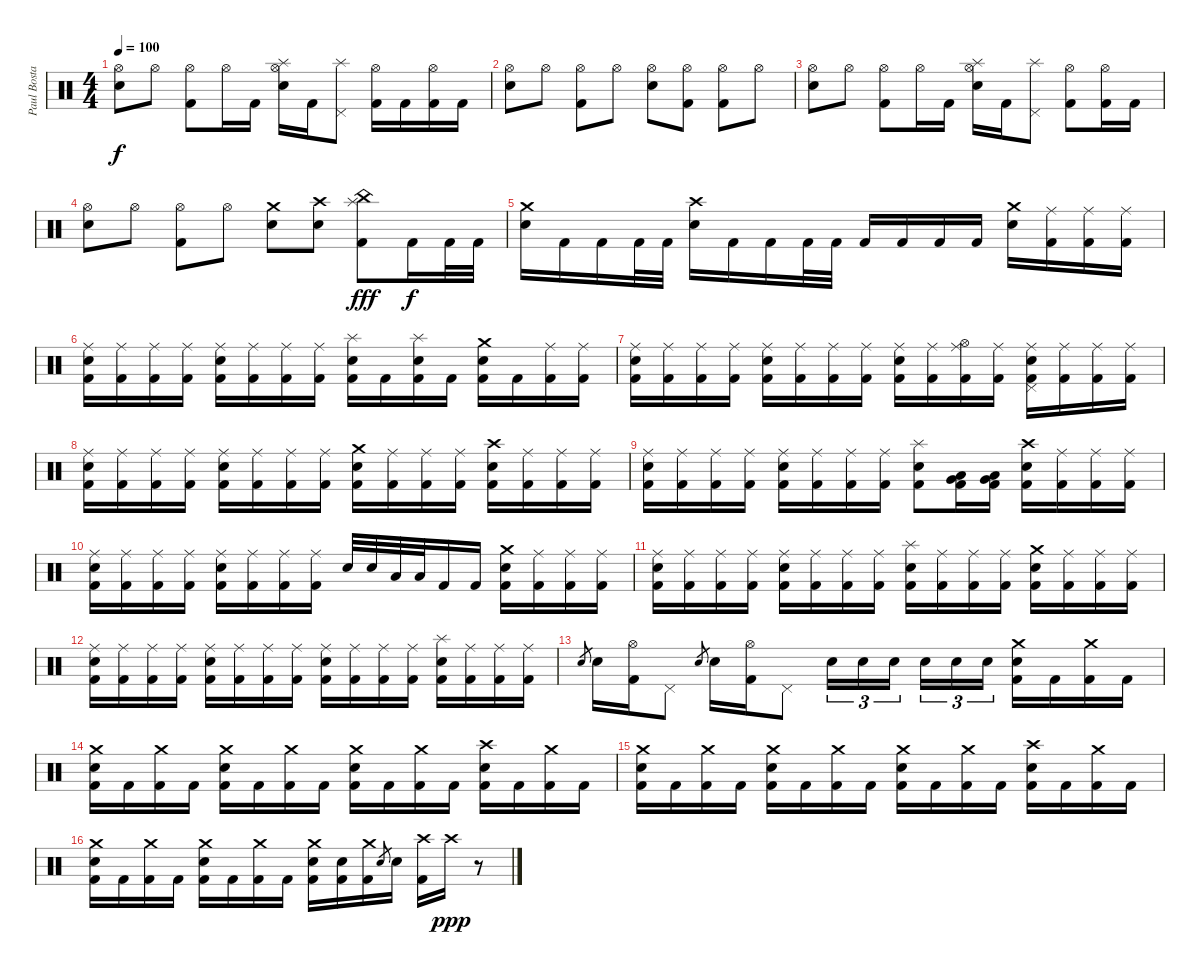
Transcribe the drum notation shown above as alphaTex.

\track ("Paul Bostaph" "Paul Bosta") {instrument percussion}
\staff {score}
\articulation defaults
\ts (4 4)
\tempo 100
\clef neutral
\ks c
("Hi-Hat (open)" "Electric Snare (hit)").8{dy f} "Hi-Hat (open)".8 ("Hi-Hat (open)" "Kick (hit) 2").8 "Hi-Hat (open)".16 "Kick (hit) 2".16 ("Splash (hit)" "Hi-Hat (open)" "Electric Snare (hit)").16 "Kick (hit) 2".16 ("Splash (hit)" "Pedal Hi-Hat (hit)").8 ("Hi-Hat (open)" "Kick (hit) 2").16 "Kick (hit) 2".16 ("Hi-Hat (open)" "Kick (hit) 2").16 "Kick (hit) 2".16 |
("Hi-Hat (open)" "Electric Snare (hit)").8 "Hi-Hat (open)".8 ("Hi-Hat (open)" "Kick (hit) 2").8 "Hi-Hat (open)".8 ("Hi-Hat (open)" "Electric Snare (hit)").8 ("Hi-Hat (open)" "Kick (hit) 2").8 ("Hi-Hat (open)" "Kick (hit) 2").8 "Hi-Hat (open)".8 |
("Hi-Hat (open)" "Electric Snare (hit)").8 "Hi-Hat (open)".8 ("Hi-Hat (open)" "Kick (hit) 2").8 "Hi-Hat (open)".16 "Kick (hit) 2".16 ("Splash (hit)" "Hi-Hat (open)" "Electric Snare (hit)").16 "Kick (hit) 2".16 ("Splash (hit)" "Pedal Hi-Hat (hit)").8 ("Hi-Hat (open)" "Kick (hit) 2").8 ("Hi-Hat (open)" "Kick (hit) 2").16 "Kick (hit) 2".16 |
("Hi-Hat (open)" "Electric Snare (hit)").8 "Hi-Hat (open)".8 ("Hi-Hat (open)" "Kick (hit) 2").8 "Hi-Hat (open)".8 ("Crash medium (hit)" "Electric Snare (hit)").8 ("Crash high (hit)" "Electric Snare (hit)").8 ("China (hit)" "Splash (hit)" "Kick (hit) 2").8{dy fff} "Kick (hit) 2".16{dy f} "Kick (hit) 2".32 "Kick (hit) 2".32 |
("Crash medium (hit)" "Electric Snare (hit)").16 "Kick (hit) 2".16 "Kick (hit) 2".16 "Kick (hit) 2".32 "Kick (hit) 2".32 ("Crash high (hit)" "Electric Snare (hit)").16 "Kick (hit) 2".16 "Kick (hit) 2".16 "Kick (hit) 2".32 "Kick (hit) 2".32 "Kick (hit) 2".16 "Kick (hit) 2".16 "Kick (hit) 2".16 "Kick (hit) 2".16 ("Crash medium (hit)" "Electric Snare (hit)").16 ("Ride (middle)" "Kick (hit) 2").16 ("Ride (middle)" "Kick (hit) 2").16 ("Ride (middle)" "Kick (hit) 2").16 |
("Ride (middle)" "Kick (hit) 2" "Electric Snare (hit)").16 ("Ride (middle)" "Kick (hit) 2").16 ("Ride (middle)" "Kick (hit) 2").16 ("Ride (middle)" "Kick (hit) 2").16 ("Ride (middle)" "Kick (hit) 2" "Electric Snare (hit)").16 ("Ride (middle)" "Kick (hit) 2").16 ("Ride (middle)" "Kick (hit) 2").16 ("Ride (middle)" "Kick (hit) 2").16 ("Splash (hit)" "Kick (hit) 2" "Electric Snare (hit)").16 "Kick (hit) 2".16 ("Splash (hit)" "Kick (hit) 2" "Electric Snare (hit)").16 "Kick (hit) 2".16 ("Crash medium (hit)" "Kick (hit) 2" "Electric Snare (hit)").16 "Kick (hit) 2".16 ("Ride (middle)" "Kick (hit) 2").16 ("Ride (middle)" "Kick (hit) 2").16 |
("Ride (middle)" "Kick (hit) 2" "Electric Snare (hit)").16 ("Ride (middle)" "Kick (hit) 2").16 ("Ride (middle)" "Kick (hit) 2").16 ("Ride (middle)" "Kick (hit) 2").16 ("Ride (middle)" "Kick (hit) 2" "Electric Snare (hit)").16 ("Ride (middle)" "Kick (hit) 2").16 ("Ride (middle)" "Kick (hit) 2").16 ("Ride (middle)" "Kick (hit) 2").16 ("Ride (middle)" "Kick (hit) 2" "Electric Snare (hit)").16 ("Ride (middle)" "Kick (hit) 2").16 ("Hi-Hat (open)" "Ride (middle)" "Kick (hit) 2").16 ("Ride (middle)" "Kick (hit) 2").16 ("Pedal Hi-Hat (hit)" "Ride (middle)" "Kick (hit) 2" "Electric Snare (hit)").16 ("Ride (middle)" "Kick (hit) 2").16 ("Ride (middle)" "Kick (hit) 2").16 ("Ride (middle)" "Kick (hit) 2").16 |
("Ride (middle)" "Kick (hit) 2" "Electric Snare (hit)").16 ("Ride (middle)" "Kick (hit) 2").16 ("Ride (middle)" "Kick (hit) 2").16 ("Ride (middle)" "Kick (hit) 2").16 ("Ride (middle)" "Kick (hit) 2" "Electric Snare (hit)").16 ("Ride (middle)" "Kick (hit) 2").16 ("Ride (middle)" "Kick (hit) 2").16 ("Ride (middle)" "Kick (hit) 2").16 ("Crash medium (hit)" "Kick (hit) 2" "Electric Snare (hit)").16 ("Ride (middle)" "Kick (hit) 2").16 ("Ride (middle)" "Kick (hit) 2").16 ("Ride (middle)" "Kick (hit) 2").16 ("Crash high (hit)" "Kick (hit) 2" "Electric Snare (hit)").16 ("Ride (middle)" "Kick (hit) 2").16 ("Ride (middle)" "Kick (hit) 2").16 ("Ride (middle)" "Kick (hit) 2").16 |
("Ride (middle)" "Kick (hit) 2" "Electric Snare (hit)").16 ("Ride (middle)" "Kick (hit) 2").16 ("Ride (middle)" "Kick (hit) 2").16 ("Ride (middle)" "Kick (hit) 2").16 ("Ride (middle)" "Kick (hit) 2" "Electric Snare (hit)").16 ("Ride (middle)" "Kick (hit) 2").16 ("Ride (middle)" "Kick (hit) 2").16 ("Ride (middle)" "Kick (hit) 2").16 ("Splash (hit)" "Kick (hit) 2" "Electric Snare (hit)").8 ("Very Low Tom (hit)" "Low Floor Tom (hit)" "Kick (hit) 2").16 ("Very Low Tom (hit)" "Low Floor Tom (hit)" "Kick (hit) 2").16 ("Crash high (hit)" "Kick (hit) 2" "Electric Snare (hit)").16 ("Ride (middle)" "Kick (hit) 2").16 ("Ride (middle)" "Kick (hit) 2").16 ("Ride (middle)" "Kick (hit) 2").16 |
("Ride (middle)" "Kick (hit) 2" "Electric Snare (hit)").16 ("Ride (middle)" "Kick (hit) 2").16 ("Ride (middle)" "Kick (hit) 2").16 ("Ride (middle)" "Kick (hit) 2").16 ("Ride (middle)" "Kick (hit) 2" "Electric Snare (hit)").16 ("Ride (middle)" "Kick (hit) 2").16 ("Ride (middle)" "Kick (hit) 2").16 ("Ride (middle)" "Kick (hit) 2").16 "Electric Snare (hit)".32 "Electric Snare (hit)".32 "Low Tom (hit)".32 "Low Tom (hit)".32 "Kick (hit) 2".16 "Kick (hit) 2".16 ("Crash medium (hit)" "Kick (hit) 2" "Electric Snare (hit)").16 ("Ride (middle)" "Kick (hit) 2").16 ("Ride (middle)" "Kick (hit) 2").16 ("Ride (middle)" "Kick (hit) 2").16 |
("Ride (middle)" "Kick (hit) 2" "Electric Snare (hit)").16 ("Ride (middle)" "Kick (hit) 2").16 ("Ride (middle)" "Kick (hit) 2").16 ("Ride (middle)" "Kick (hit) 2").16 ("Ride (middle)" "Kick (hit) 2" "Electric Snare (hit)").16 ("Ride (middle)" "Kick (hit) 2").16 ("Ride (middle)" "Kick (hit) 2").16 ("Ride (middle)" "Kick (hit) 2").16 ("Splash (hit)" "Kick (hit) 2" "Electric Snare (hit)").16 ("Ride (middle)" "Kick (hit) 2").16 ("Ride (middle)" "Kick (hit) 2").16 ("Ride (middle)" "Kick (hit) 2").16 ("Crash medium (hit)" "Kick (hit) 2" "Electric Snare (hit)").16 ("Ride (middle)" "Kick (hit) 2").16 ("Ride (middle)" "Kick (hit) 2").16 ("Ride (middle)" "Kick (hit) 2").16 |
("Ride (middle)" "Kick (hit) 2" "Electric Snare (hit)").16 ("Ride (middle)" "Kick (hit) 2").16 ("Ride (middle)" "Kick (hit) 2").16 ("Ride (middle)" "Kick (hit) 2").16 ("Ride (middle)" "Kick (hit) 2" "Electric Snare (hit)").16 ("Ride (middle)" "Kick (hit) 2").16 ("Ride (middle)" "Kick (hit) 2").16 ("Ride (middle)" "Kick (hit) 2").16 ("Ride (middle)" "Kick (hit) 2" "Electric Snare (hit)").16 ("Ride (middle)" "Kick (hit) 2").16 ("Ride (middle)" "Kick (hit) 2").16 ("Ride (middle)" "Kick (hit) 2").16 ("Splash (hit)" "Kick (hit) 2" "Electric Snare (hit)").16 ("Ride (middle)" "Kick (hit) 2").16 ("Ride (middle)" "Kick (hit) 2").16 ("Ride (middle)" "Kick (hit) 2").16 |
"Electric Snare (hit)".8{gr} "Electric Snare (hit)".16 ("Hi-Hat (open)" "Kick (hit) 2").16 "Pedal Hi-Hat (hit)".8 "Electric Snare (hit)".8{gr} "Electric Snare (hit)".16 ("Hi-Hat (open)" "Kick (hit) 2").16 "Pedal Hi-Hat (hit)".8 "Electric Snare (hit)".16{tu (3 2)} "Electric Snare (hit)".16{tu (3 2)} "Electric Snare (hit)".16{tu (3 2)} "Electric Snare (hit)".16{tu (3 2)} "Electric Snare (hit)".16{tu (3 2)} "Electric Snare (hit)".16{tu (3 2)} ("Crash medium (hit)" "Electric Snare (hit)" "Kick (hit) 2").16 "Kick (hit) 2".16 ("Crash medium (hit)" "Kick (hit) 2").16 "Kick (hit) 2".16 |
("Crash medium (hit)" "Electric Snare (hit)" "Kick (hit) 2").16 "Kick (hit) 2".16 ("Crash medium (hit)" "Kick (hit) 2").16 "Kick (hit) 2".16 ("Crash medium (hit)" "Electric Snare (hit)" "Kick (hit) 2").16 "Kick (hit) 2".16 ("Crash medium (hit)" "Kick (hit) 2").16 "Kick (hit) 2".16 ("Crash medium (hit)" "Electric Snare (hit)" "Kick (hit) 2").16 "Kick (hit) 2".16 ("Crash medium (hit)" "Kick (hit) 2").16 "Kick (hit) 2".16 ("Crash high (hit)" "Electric Snare (hit)" "Kick (hit) 2").16 "Kick (hit) 2".16 ("Crash medium (hit)" "Kick (hit) 2").16 "Kick (hit) 2".16 |
("Crash medium (hit)" "Electric Snare (hit)" "Kick (hit) 2").16 "Kick (hit) 2".16 ("Crash medium (hit)" "Kick (hit) 2").16 "Kick (hit) 2".16 ("Crash medium (hit)" "Electric Snare (hit)" "Kick (hit) 2").16 "Kick (hit) 2".16 ("Crash medium (hit)" "Kick (hit) 2").16 "Kick (hit) 2".16 ("Crash medium (hit)" "Electric Snare (hit)" "Kick (hit) 2").16 "Kick (hit) 2".16 ("Crash medium (hit)" "Kick (hit) 2").16 "Kick (hit) 2".16 ("Crash high (hit)" "Electric Snare (hit)" "Kick (hit) 2").16 "Kick (hit) 2".16 ("Crash medium (hit)" "Kick (hit) 2").16 "Kick (hit) 2".16 |
("Crash medium (hit)" "Electric Snare (hit)" "Kick (hit) 2").16 "Kick (hit) 2".16 ("Crash medium (hit)" "Kick (hit) 2").16 "Kick (hit) 2".16 ("Crash medium (hit)" "Electric Snare (hit)" "Kick (hit) 2").16 "Kick (hit) 2".16 ("Crash medium (hit)" "Kick (hit) 2").16 "Kick (hit) 2".16 ("Crash medium (hit)" "Electric Snare (hit)" "Kick (hit) 2").16 ("Electric Snare (hit)" "Kick (hit) 2").16 ("Crash medium (hit)" "Kick (hit) 2").16 "Electric Snare (hit)".8{gr} "Electric Snare (hit)".16 ("Crash high (hit)" "Kick (hit) 2").16 "Crash high (hit)".16{dy ppp} r.8
